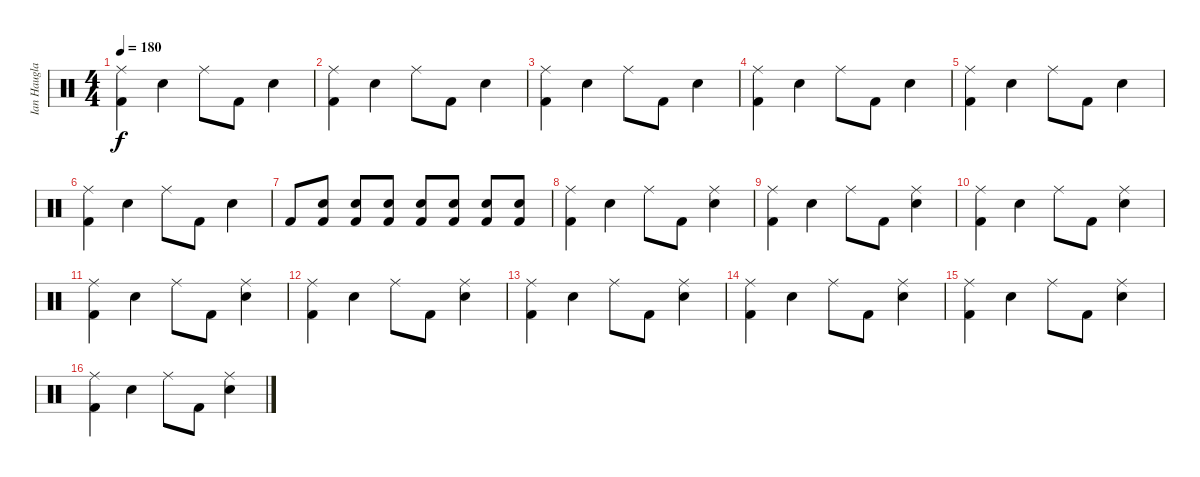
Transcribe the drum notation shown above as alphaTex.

\track ("Ian Haugland drums" "Ian Haugla") {instrument percussion}
\staff {score}
\articulation defaults
\ts (4 4)
\tempo 180
\clef neutral
\ks c
("Ride (middle)" "Kick (hit) 2").4{dy f} "Snare (hit) 2".4 "Ride (middle)".8 "Kick (hit) 2".8 "Snare (hit) 2".4 |
("Ride (middle)" "Kick (hit) 2").4 "Snare (hit) 2".4 "Ride (middle)".8 "Kick (hit) 2".8 "Snare (hit) 2".4 |
("Ride (middle)" "Kick (hit) 2").4 "Snare (hit) 2".4 "Ride (middle)".8 "Kick (hit) 2".8 "Snare (hit) 2".4 |
("Ride (middle)" "Kick (hit) 2").4 "Snare (hit) 2".4 "Ride (middle)".8 "Kick (hit) 2".8 "Snare (hit) 2".4 |
("Ride (middle)" "Kick (hit) 2").4 "Snare (hit) 2".4 "Ride (middle)".8 "Kick (hit) 2".8 "Snare (hit) 2".4 |
("Ride (middle)" "Kick (hit) 2").4 "Snare (hit) 2".4 "Ride (middle)".8 "Kick (hit) 2".8 "Snare (hit) 2".4 |
"Kick (hit) 2".8 ("Snare (hit) 2" "Kick (hit) 2").8 ("Snare (hit) 2" "Kick (hit) 2").8 ("Snare (hit) 2" "Kick (hit) 2").8 ("Snare (hit) 2" "Kick (hit) 2").8 ("Snare (hit) 2" "Kick (hit) 2").8 ("Snare (hit) 2" "Kick (hit) 2").8 ("Snare (hit) 2" "Kick (hit) 2").8 |
("Ride (middle)" "Kick (hit) 2").4 "Snare (hit) 2".4 "Ride (middle)".8 "Kick (hit) 2".8 ("Ride (middle)" "Snare (hit) 2").4 |
("Ride (middle)" "Kick (hit) 2").4 "Snare (hit) 2".4 "Ride (middle)".8 "Kick (hit) 2".8 ("Ride (middle)" "Snare (hit) 2").4 |
("Ride (middle)" "Kick (hit) 2").4 "Snare (hit) 2".4 "Ride (middle)".8 "Kick (hit) 2".8 ("Ride (middle)" "Snare (hit) 2").4 |
("Ride (middle)" "Kick (hit) 2").4 "Snare (hit) 2".4 "Ride (middle)".8 "Kick (hit) 2".8 ("Ride (middle)" "Snare (hit) 2").4 |
("Ride (middle)" "Kick (hit) 2").4 "Snare (hit) 2".4 "Ride (middle)".8 "Kick (hit) 2".8 ("Ride (middle)" "Snare (hit) 2").4 |
("Ride (middle)" "Kick (hit) 2").4 "Snare (hit) 2".4 "Ride (middle)".8 "Kick (hit) 2".8 ("Ride (middle)" "Snare (hit) 2").4 |
("Ride (middle)" "Kick (hit) 2").4 "Snare (hit) 2".4 "Ride (middle)".8 "Kick (hit) 2".8 ("Ride (middle)" "Snare (hit) 2").4 |
("Ride (middle)" "Kick (hit) 2").4 "Snare (hit) 2".4 "Ride (middle)".8 "Kick (hit) 2".8 ("Ride (middle)" "Snare (hit) 2").4 |
("Ride (middle)" "Kick (hit) 2").4 "Snare (hit) 2".4 "Ride (middle)".8 "Kick (hit) 2".8 ("Ride (middle)" "Snare (hit) 2").4
